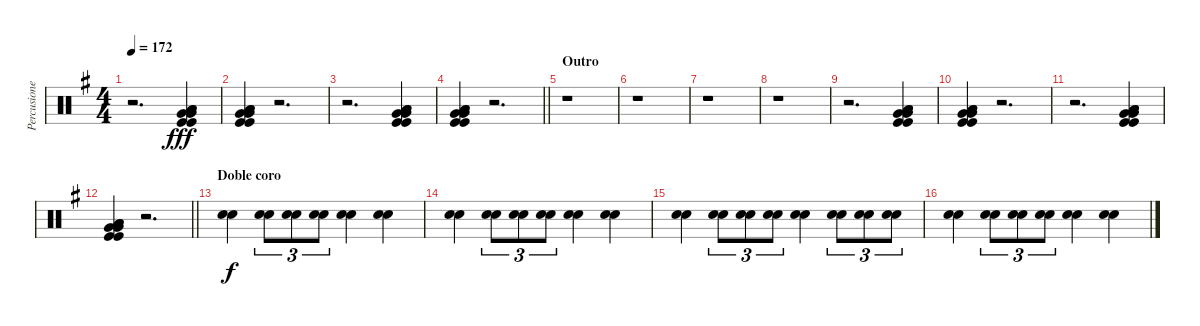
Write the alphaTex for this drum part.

\track ("Percusiones" "Percusione") {instrument percussion}
\staff {score}
\articulation defaults
\ts (4 4)
\tempo 172
\clef neutral
\ks eminor
r.2{d dy fff} ("Low Floor Tom (hit)" "Low Floor Tom (hit)" "Kick (hit)" "Kick (hit)" "Very Low Tom (hit)" "Very Low Tom (hit)").4 |
("Low Floor Tom (hit)" "Low Floor Tom (hit)" "Kick (hit)" "Kick (hit)" "Very Low Tom (hit)" "Very Low Tom (hit)").4 r.2{d} |
r.2{d} ("Low Floor Tom (hit)" "Low Floor Tom (hit)" "Kick (hit)" "Kick (hit)" "Very Low Tom (hit)" "Very Low Tom (hit)").4 |
\barLineRight lightlight
("Low Floor Tom (hit)" "Low Floor Tom (hit)" "Kick (hit)" "Kick (hit)" "Very Low Tom (hit)" "Very Low Tom (hit)").4 r.2{d} |
\section ("" "Outro")
r.1{volume 12} |
r.1 |
r.1 |
r.1 |
r.2{d} ("Low Floor Tom (hit)" "Low Floor Tom (hit)" "Kick (hit)" "Kick (hit)" "Very Low Tom (hit)" "Very Low Tom (hit)").4 |
("Low Floor Tom (hit)" "Low Floor Tom (hit)" "Kick (hit)" "Kick (hit)" "Very Low Tom (hit)" "Very Low Tom (hit)").4 r.2{d} |
r.2{d} ("Low Floor Tom (hit)" "Low Floor Tom (hit)" "Kick (hit)" "Kick (hit)" "Very Low Tom (hit)" "Very Low Tom (hit)").4 |
\barLineRight lightlight
("Low Floor Tom (hit)" "Low Floor Tom (hit)" "Kick (hit)" "Kick (hit)" "Very Low Tom (hit)" "Very Low Tom (hit)").4 r.2{d} |
\section ("" "Doble coro")
("Electric Snare (hit)" "Electric Snare (hit)").4{dy f} ("Electric Snare (hit)" "Electric Snare (hit)").8{tu (3 2)} ("Electric Snare (hit)" "Electric Snare (hit)").8{tu (3 2)} ("Electric Snare (hit)" "Electric Snare (hit)").8{tu (3 2)} ("Electric Snare (hit)" "Electric Snare (hit)").4 ("Electric Snare (hit)" "Electric Snare (hit)").4 |
("Electric Snare (hit)" "Electric Snare (hit)").4 ("Electric Snare (hit)" "Electric Snare (hit)").8{tu (3 2)} ("Electric Snare (hit)" "Electric Snare (hit)").8{tu (3 2)} ("Electric Snare (hit)" "Electric Snare (hit)").8{tu (3 2)} ("Electric Snare (hit)" "Electric Snare (hit)").4 ("Electric Snare (hit)" "Electric Snare (hit)").4 |
("Electric Snare (hit)" "Electric Snare (hit)").4 ("Electric Snare (hit)" "Electric Snare (hit)").8{tu (3 2)} ("Electric Snare (hit)" "Electric Snare (hit)").8{tu (3 2)} ("Electric Snare (hit)" "Electric Snare (hit)").8{tu (3 2)} ("Electric Snare (hit)" "Electric Snare (hit)").4 ("Electric Snare (hit)" "Electric Snare (hit)").8{tu (3 2)} ("Electric Snare (hit)" "Electric Snare (hit)").8{tu (3 2)} ("Electric Snare (hit)" "Electric Snare (hit)").8{tu (3 2)} |
("Electric Snare (hit)" "Electric Snare (hit)").4 ("Electric Snare (hit)" "Electric Snare (hit)").8{tu (3 2)} ("Electric Snare (hit)" "Electric Snare (hit)").8{tu (3 2)} ("Electric Snare (hit)" "Electric Snare (hit)").8{tu (3 2)} ("Electric Snare (hit)" "Electric Snare (hit)").4 ("Electric Snare (hit)" "Electric Snare (hit)").4
